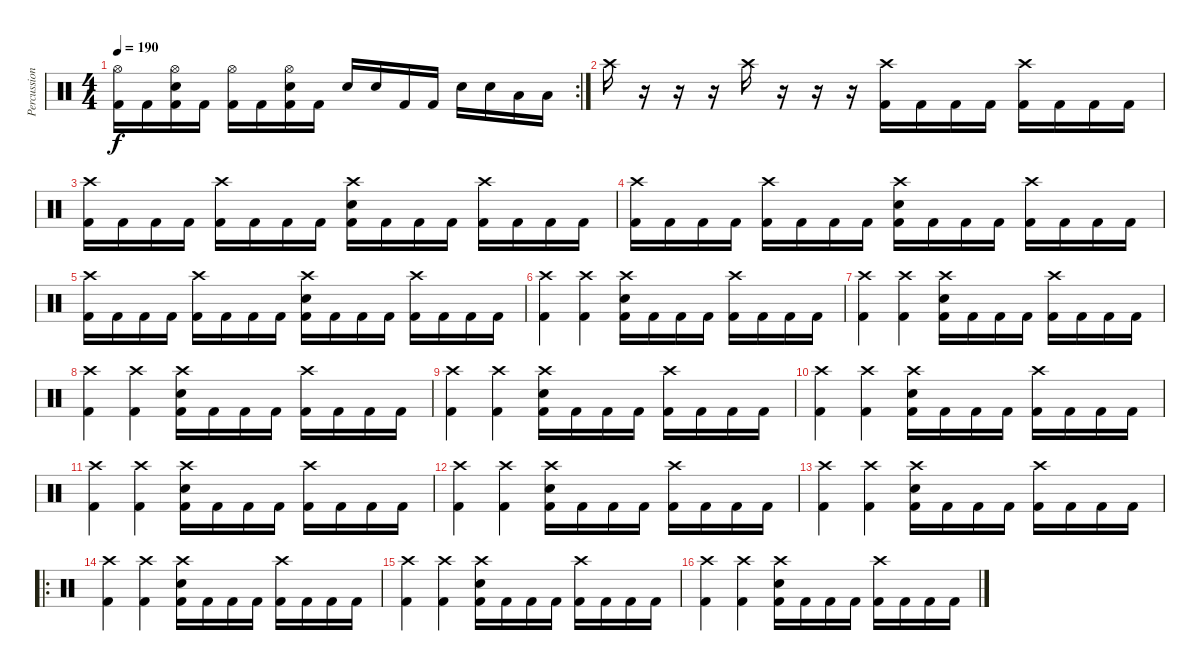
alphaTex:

\track ("Percussion" "Percussion") {instrument percussion}
\staff {score}
\articulation defaults
\rc 2
\ts (4 4)
\tempo 190
\clef neutral
\ks c
("Hi-Hat (open)" "Kick (hit) 2").16{dy f} "Kick (hit) 2".16 ("Hi-Hat (open)" "Snare (hit) 2" "Kick (hit) 2").16 "Kick (hit) 2".16 ("Hi-Hat (open)" "Kick (hit) 2").16 "Kick (hit) 2".16 ("Hi-Hat (open)" "Snare (hit) 2" "Kick (hit) 2").16 "Kick (hit) 2".16 "Snare (hit) 2".16 "Snare (hit) 2".16 "Kick (hit) 2".16 "Kick (hit) 2".16 "Snare (hit) 2".16 "Snare (hit) 2".16 "Low Tom (hit)".16 "Low Tom (hit)".16 |
"Crash high (hit)".16 r.16 r.16 r.16 "Crash high (hit)".16 r.16 r.16 r.16 ("Crash high (hit)" "Kick (hit) 2").16 "Kick (hit) 2".16 "Kick (hit) 2".16 "Kick (hit) 2".16 ("Crash high (hit)" "Kick (hit) 2").16 "Kick (hit) 2".16 "Kick (hit) 2".16 "Kick (hit) 2".16 |
("Crash high (hit)" "Kick (hit) 2").16 "Kick (hit) 2".16 "Kick (hit) 2".16 "Kick (hit) 2".16 ("Crash high (hit)" "Kick (hit) 2").16 "Kick (hit) 2".16 "Kick (hit) 2".16 "Kick (hit) 2".16 ("Crash high (hit)" "Snare (hit) 2" "Kick (hit) 2").16 "Kick (hit) 2".16 "Kick (hit) 2".16 "Kick (hit) 2".16 ("Crash high (hit)" "Kick (hit) 2").16 "Kick (hit) 2".16 "Kick (hit) 2".16 "Kick (hit) 2".16 |
("Crash high (hit)" "Kick (hit) 2").16 "Kick (hit) 2".16 "Kick (hit) 2".16 "Kick (hit) 2".16 ("Crash high (hit)" "Kick (hit) 2").16 "Kick (hit) 2".16 "Kick (hit) 2".16 "Kick (hit) 2".16 ("Crash high (hit)" "Snare (hit) 2" "Kick (hit) 2").16 "Kick (hit) 2".16 "Kick (hit) 2".16 "Kick (hit) 2".16 ("Crash high (hit)" "Kick (hit) 2").16 "Kick (hit) 2".16 "Kick (hit) 2".16 "Kick (hit) 2".16 |
("Crash high (hit)" "Kick (hit) 2").16 "Kick (hit) 2".16 "Kick (hit) 2".16 "Kick (hit) 2".16 ("Crash high (hit)" "Kick (hit) 2").16 "Kick (hit) 2".16 "Kick (hit) 2".16 "Kick (hit) 2".16 ("Crash high (hit)" "Snare (hit) 2" "Kick (hit) 2").16 "Kick (hit) 2".16 "Kick (hit) 2".16 "Kick (hit) 2".16 ("Crash high (hit)" "Kick (hit) 2").16 "Kick (hit) 2".16 "Kick (hit) 2".16 "Kick (hit) 2".16 |
("Crash high (hit)" "Kick (hit) 2").4 ("Crash high (hit)" "Kick (hit) 2").4 ("Crash high (hit)" "Snare (hit) 2" "Kick (hit) 2").16 "Kick (hit) 2".16 "Kick (hit) 2".16 "Kick (hit) 2".16 ("Crash high (hit)" "Kick (hit) 2").16 "Kick (hit) 2".16 "Kick (hit) 2".16 "Kick (hit) 2".16 |
("Crash high (hit)" "Kick (hit) 2").4 ("Crash high (hit)" "Kick (hit) 2").4 ("Crash high (hit)" "Snare (hit) 2" "Kick (hit) 2").16 "Kick (hit) 2".16 "Kick (hit) 2".16 "Kick (hit) 2".16 ("Crash high (hit)" "Kick (hit) 2").16 "Kick (hit) 2".16 "Kick (hit) 2".16 "Kick (hit) 2".16 |
("Crash high (hit)" "Kick (hit) 2").4 ("Crash high (hit)" "Kick (hit) 2").4 ("Crash high (hit)" "Snare (hit) 2" "Kick (hit) 2").16 "Kick (hit) 2".16 "Kick (hit) 2".16 "Kick (hit) 2".16 ("Crash high (hit)" "Kick (hit) 2").16 "Kick (hit) 2".16 "Kick (hit) 2".16 "Kick (hit) 2".16 |
("Crash high (hit)" "Kick (hit) 2").4 ("Crash high (hit)" "Kick (hit) 2").4 ("Crash high (hit)" "Snare (hit) 2" "Kick (hit) 2").16 "Kick (hit) 2".16 "Kick (hit) 2".16 "Kick (hit) 2".16 ("Crash high (hit)" "Kick (hit) 2").16 "Kick (hit) 2".16 "Kick (hit) 2".16 "Kick (hit) 2".16 |
("Crash high (hit)" "Kick (hit) 2").4 ("Crash high (hit)" "Kick (hit) 2").4 ("Crash high (hit)" "Snare (hit) 2" "Kick (hit) 2").16 "Kick (hit) 2".16 "Kick (hit) 2".16 "Kick (hit) 2".16 ("Crash high (hit)" "Kick (hit) 2").16 "Kick (hit) 2".16 "Kick (hit) 2".16 "Kick (hit) 2".16 |
("Crash high (hit)" "Kick (hit) 2").4 ("Crash high (hit)" "Kick (hit) 2").4 ("Crash high (hit)" "Snare (hit) 2" "Kick (hit) 2").16 "Kick (hit) 2".16 "Kick (hit) 2".16 "Kick (hit) 2".16 ("Crash high (hit)" "Kick (hit) 2").16 "Kick (hit) 2".16 "Kick (hit) 2".16 "Kick (hit) 2".16 |
("Crash high (hit)" "Kick (hit) 2").4 ("Crash high (hit)" "Kick (hit) 2").4 ("Crash high (hit)" "Snare (hit) 2" "Kick (hit) 2").16 "Kick (hit) 2".16 "Kick (hit) 2".16 "Kick (hit) 2".16 ("Crash high (hit)" "Kick (hit) 2").16 "Kick (hit) 2".16 "Kick (hit) 2".16 "Kick (hit) 2".16 |
("Crash high (hit)" "Kick (hit) 2").4 ("Crash high (hit)" "Kick (hit) 2").4 ("Crash high (hit)" "Snare (hit) 2" "Kick (hit) 2").16 "Kick (hit) 2".16 "Kick (hit) 2".16 "Kick (hit) 2".16 ("Crash high (hit)" "Kick (hit) 2").16 "Kick (hit) 2".16 "Kick (hit) 2".16 "Kick (hit) 2".16 |
\ro
("Crash high (hit)" "Kick (hit) 2").4 ("Crash high (hit)" "Kick (hit) 2").4 ("Crash high (hit)" "Snare (hit) 2" "Kick (hit) 2").16 "Kick (hit) 2".16 "Kick (hit) 2".16 "Kick (hit) 2".16 ("Crash high (hit)" "Kick (hit) 2").16 "Kick (hit) 2".16 "Kick (hit) 2".16 "Kick (hit) 2".16 |
("Crash high (hit)" "Kick (hit) 2").4 ("Crash high (hit)" "Kick (hit) 2").4 ("Crash high (hit)" "Snare (hit) 2" "Kick (hit) 2").16 "Kick (hit) 2".16 "Kick (hit) 2".16 "Kick (hit) 2".16 ("Crash high (hit)" "Kick (hit) 2").16 "Kick (hit) 2".16 "Kick (hit) 2".16 "Kick (hit) 2".16 |
("Crash high (hit)" "Kick (hit) 2").4 ("Crash high (hit)" "Kick (hit) 2").4 ("Crash high (hit)" "Snare (hit) 2" "Kick (hit) 2").16 "Kick (hit) 2".16 "Kick (hit) 2".16 "Kick (hit) 2".16 ("Crash high (hit)" "Kick (hit) 2").16 "Kick (hit) 2".16 "Kick (hit) 2".16 "Kick (hit) 2".16
